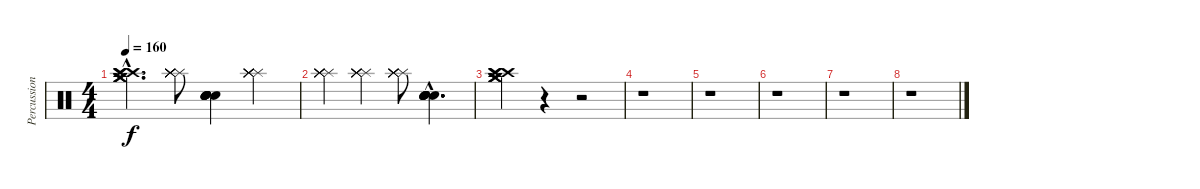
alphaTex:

\track ("Percussion" "Percussion") {instrument percussion}
\staff {score}
\articulation defaults
\ts (4 4)
\tempo 160
\clef neutral
\ks c
("Crash high (hit)"{hac} "Crash high (hit)"{hac} "Crash high (hit)"{hac} "Crash medium (hit)"{hac} "Crash medium (hit)"{hac} "Crash medium (hit)"{hac}).4{d dy f} ("Splash (hit)" "Splash (hit)" "Splash (hit)" "Splash (hit)" "Splash (hit)" "Splash (hit)").8 ("Snare (hit) 2" "Snare (hit) 2" "Snare (hit) 2" "Snare (hit) 2" "Snare (hit) 2" "Snare (hit) 2").4 ("Splash (hit)" "Splash (hit)" "Splash (hit)" "Splash (hit)" "Splash (hit)" "Splash (hit)").4 |
("Splash (hit)" "Splash (hit)" "Splash (hit)" "Splash (hit)" "Splash (hit)" "Splash (hit)").4 ("Splash (hit)" "Splash (hit)" "Splash (hit)" "Splash (hit)" "Splash (hit)" "Splash (hit)").4 ("Splash (hit)" "Splash (hit)" "Splash (hit)" "Splash (hit)" "Splash (hit)" "Splash (hit)").8 ("Electric Snare (hit)"{hac} "Electric Snare (hit)"{hac} "Electric Snare (hit)"{hac} "Electric Snare (hit)"{hac} "Electric Snare (hit)"{hac} "Electric Snare (hit)"{hac}).4{d} |
("Crash high (hit)" "Crash high (hit)" "Crash high (hit)" "Crash medium (hit)" "Crash medium (hit)" "Crash medium (hit)").4 r.4 r.2 |
r.1 |
r.1 |
r.1 |
r.1 |
r.1
